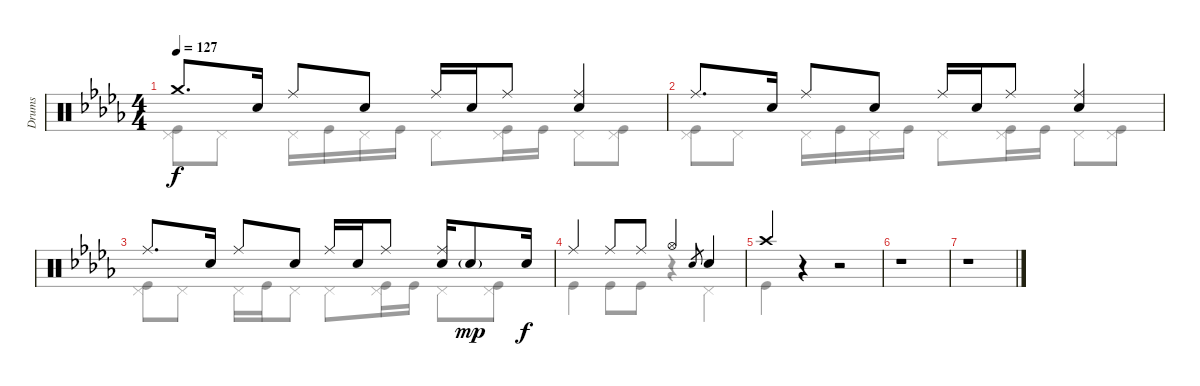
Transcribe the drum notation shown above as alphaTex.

\track ("Drums" "Drums") {instrument percussion}
\staff {score}
\articulation defaults
\voice
\ts (4 4)
\tempo 127
\clef neutral
\ks bbminor "Crash medium (hit)".8{d dy f} "Electric Snare (hit)".16 "Ride (middle)".8 "Electric Snare (hit)".8 "Ride (middle)".16 "Electric Snare (hit)".16 "Ride (middle)".8
("Ride (middle)" "Electric Snare (hit)").4 |
"Ride (middle)".8{d} "Electric Snare (hit)".16 "Ride (middle)".8 "Electric Snare (hit)".8 "Ride (middle)".16 "Electric Snare (hit)".16 "Ride (middle)".8 ("Ride (middle)" "Electric Snare (hit)").4 |
"Ride (middle)".8{d} "Electric Snare (hit)".16 "Ride (middle)".8 "Electric Snare (hit)".8 "Ride (middle)".16 "Electric Snare (hit)".16 "Ride (middle)".8 ("Ride (middle)" "Electric Snare (hit)").16 "Electric Snare (hit)"{g}.8{dy mp} "Electric Snare (hit)".16{dy f} |
"Ride (middle)".4 "Ride (middle)".8 "Ride (middle)".8 "Hi-Hat (open)".4 "Electric Snare (hit)".8{gr} "Electric Snare (hit)".4 |
"Crash high (hit)".4 r.4 r.2 |
r.1 |
r.1
\voice
\clef neutral
\ottava regular
\simile none
\ks bbminor
("Pedal Hi-Hat (hit)" "Kick (hit)").8{dy f} "Pedal Hi-Hat (hit)".8 "Pedal Hi-Hat (hit)".16 "Kick (hit)".16 "Pedal Hi-Hat (hit)".16 "Kick (hit)".16 "Pedal Hi-Hat (hit)".8 ("Pedal Hi-Hat (hit)" "Kick (hit)").16 "Kick (hit)".16 "Pedal Hi-Hat (hit)".8 ("Pedal Hi-Hat (hit)" "Kick (hit)").8 |
("Pedal Hi-Hat (hit)" "Kick (hit)").8 "Pedal Hi-Hat (hit)".8 "Pedal Hi-Hat (hit)".16 "Kick (hit)".16 "Pedal Hi-Hat (hit)".16 "Kick (hit)".16 "Pedal Hi-Hat (hit)".8 ("Pedal Hi-Hat (hit)" "Kick (hit)").16 "Kick (hit)".16 "Pedal Hi-Hat (hit)".8 ("Pedal Hi-Hat (hit)" "Kick (hit)").8 |
("Pedal Hi-Hat (hit)" "Kick (hit)").8 "Pedal Hi-Hat (hit)".8 "Pedal Hi-Hat (hit)".16 "Kick (hit)".16 "Pedal Hi-Hat (hit)".8 "Pedal Hi-Hat (hit)".8 ("Pedal Hi-Hat (hit)" "Kick (hit)").16 "Kick (hit)".16 "Pedal Hi-Hat (hit)".8 ("Pedal Hi-Hat (hit)" "Kick (hit)").8 |
"Kick (hit)".4 "Kick (hit)".8 "Kick (hit)".8 r.4 "Pedal Hi-Hat (hit)".4 |
"Kick (hit)".4 r.4 r.2 |
r.1 |
r.1
